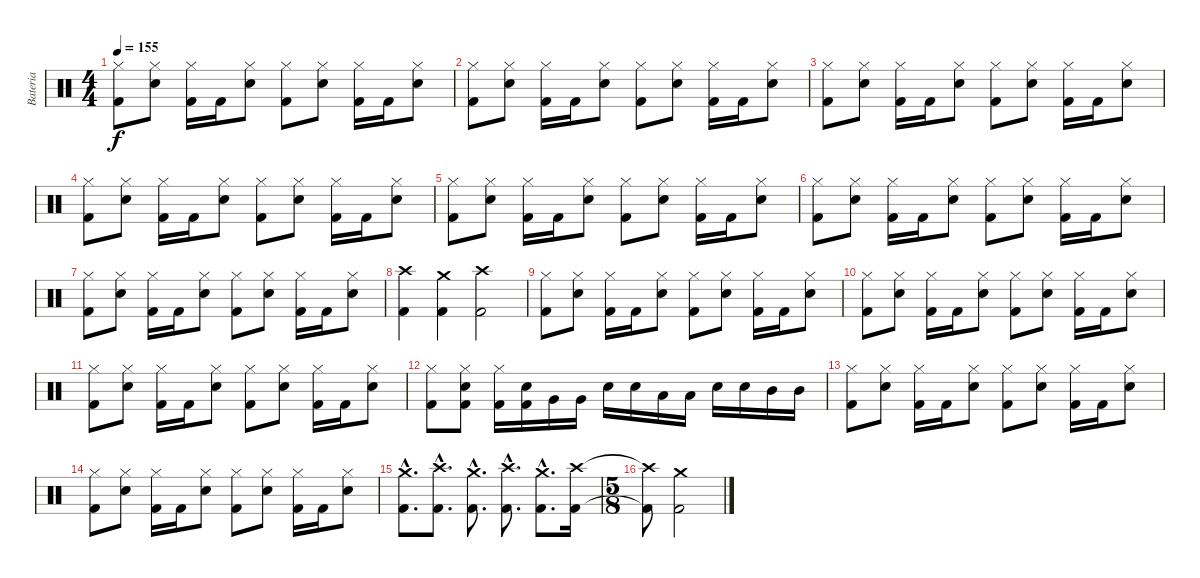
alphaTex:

\track ("Bateria" "Bateria") {instrument percussion}
\staff {score}
\articulation defaults
\ts (4 4)
\tempo 155
\clef neutral
\ks c
("Kick (hit) 2" "Hi-Hat (closed)").8{dy f} ("Electric Snare (hit)" "Hi-Hat (closed)").8 ("Kick (hit) 2" "Hi-Hat (closed)").16 "Kick (hit) 2".16 ("Electric Snare (hit)" "Hi-Hat (closed)").8 ("Kick (hit) 2" "Hi-Hat (closed)").8 ("Electric Snare (hit)" "Hi-Hat (closed)").8 ("Kick (hit) 2" "Hi-Hat (closed)").16 "Kick (hit) 2".16 ("Electric Snare (hit)" "Hi-Hat (closed)").8 |
("Kick (hit) 2" "Hi-Hat (closed)").8 ("Electric Snare (hit)" "Hi-Hat (closed)").8 ("Kick (hit) 2" "Hi-Hat (closed)").16 "Kick (hit) 2".16 ("Electric Snare (hit)" "Hi-Hat (closed)").8 ("Kick (hit) 2" "Hi-Hat (closed)").8 ("Electric Snare (hit)" "Hi-Hat (closed)").8 ("Kick (hit) 2" "Hi-Hat (closed)").16 "Kick (hit) 2".16 ("Electric Snare (hit)" "Hi-Hat (closed)").8 |
("Kick (hit) 2" "Hi-Hat (closed)").8 ("Electric Snare (hit)" "Hi-Hat (closed)").8 ("Kick (hit) 2" "Hi-Hat (closed)").16 "Kick (hit) 2".16 ("Electric Snare (hit)" "Hi-Hat (closed)").8 ("Kick (hit) 2" "Hi-Hat (closed)").8 ("Electric Snare (hit)" "Hi-Hat (closed)").8 ("Kick (hit) 2" "Hi-Hat (closed)").16 "Kick (hit) 2".16 ("Electric Snare (hit)" "Hi-Hat (closed)").8 |
("Kick (hit) 2" "Hi-Hat (closed)").8 ("Electric Snare (hit)" "Hi-Hat (closed)").8 ("Kick (hit) 2" "Hi-Hat (closed)").16 "Kick (hit) 2".16 ("Electric Snare (hit)" "Hi-Hat (closed)").8 ("Kick (hit) 2" "Hi-Hat (closed)").8 ("Electric Snare (hit)" "Hi-Hat (closed)").8 ("Kick (hit) 2" "Hi-Hat (closed)").16 "Kick (hit) 2".16 ("Electric Snare (hit)" "Hi-Hat (closed)").8 |
("Kick (hit) 2" "Hi-Hat (closed)").8 ("Electric Snare (hit)" "Hi-Hat (closed)").8 ("Kick (hit) 2" "Hi-Hat (closed)").16 "Kick (hit) 2".16 ("Electric Snare (hit)" "Hi-Hat (closed)").8 ("Kick (hit) 2" "Hi-Hat (closed)").8 ("Electric Snare (hit)" "Hi-Hat (closed)").8 ("Kick (hit) 2" "Hi-Hat (closed)").16 "Kick (hit) 2".16 ("Electric Snare (hit)" "Hi-Hat (closed)").8 |
("Kick (hit) 2" "Hi-Hat (closed)").8 ("Electric Snare (hit)" "Hi-Hat (closed)").8 ("Kick (hit) 2" "Hi-Hat (closed)").16 "Kick (hit) 2".16 ("Electric Snare (hit)" "Hi-Hat (closed)").8 ("Kick (hit) 2" "Hi-Hat (closed)").8 ("Electric Snare (hit)" "Hi-Hat (closed)").8 ("Kick (hit) 2" "Hi-Hat (closed)").16 "Kick (hit) 2".16 ("Electric Snare (hit)" "Hi-Hat (closed)").8 |
("Kick (hit) 2" "Hi-Hat (closed)").8 ("Electric Snare (hit)" "Hi-Hat (closed)").8 ("Kick (hit) 2" "Hi-Hat (closed)").16 "Kick (hit) 2".16 ("Electric Snare (hit)" "Hi-Hat (closed)").8 ("Kick (hit) 2" "Hi-Hat (closed)").8 ("Electric Snare (hit)" "Hi-Hat (closed)").8 ("Kick (hit) 2" "Hi-Hat (closed)").16 "Kick (hit) 2".16 ("Electric Snare (hit)" "Hi-Hat (closed)").8 |
("Kick (hit) 2" "Crash high (hit)").4 ("Kick (hit) 2" "Crash medium (hit)").4 ("Kick (hit) 2" "Crash high (hit)").2 |
("Kick (hit) 2" "Hi-Hat (closed)").8 ("Electric Snare (hit)" "Hi-Hat (closed)").8 ("Kick (hit) 2" "Hi-Hat (closed)").16 "Kick (hit) 2".16 ("Electric Snare (hit)" "Hi-Hat (closed)").8 ("Kick (hit) 2" "Hi-Hat (closed)").8 ("Electric Snare (hit)" "Hi-Hat (closed)").8 ("Kick (hit) 2" "Hi-Hat (closed)").16 "Kick (hit) 2".16 ("Electric Snare (hit)" "Hi-Hat (closed)").8 |
("Kick (hit) 2" "Hi-Hat (closed)").8 ("Electric Snare (hit)" "Hi-Hat (closed)").8 ("Kick (hit) 2" "Hi-Hat (closed)").16 "Kick (hit) 2".16 ("Electric Snare (hit)" "Hi-Hat (closed)").8 ("Kick (hit) 2" "Hi-Hat (closed)").8 ("Electric Snare (hit)" "Hi-Hat (closed)").8 ("Kick (hit) 2" "Hi-Hat (closed)").16 "Kick (hit) 2".16 ("Electric Snare (hit)" "Hi-Hat (closed)").8 |
("Kick (hit) 2" "Hi-Hat (closed)").8 ("Electric Snare (hit)" "Hi-Hat (closed)").8 ("Kick (hit) 2" "Hi-Hat (closed)").16 "Kick (hit) 2".16 ("Electric Snare (hit)" "Hi-Hat (closed)").8 ("Kick (hit) 2" "Hi-Hat (closed)").8 ("Electric Snare (hit)" "Hi-Hat (closed)").8 ("Kick (hit) 2" "Hi-Hat (closed)").16 "Kick (hit) 2".16 ("Electric Snare (hit)" "Hi-Hat (closed)").8 |
("Kick (hit) 2" "Hi-Hat (closed)").8 ("Kick (hit) 2" "Hi-Hat (closed)" "Electric Snare (hit)").8 ("Kick (hit) 2" "Hi-Hat (closed)").16 ("Kick (hit) 2" "Electric Snare (hit)").16 "Very Low Tom (hit)".16 "Very Low Tom (hit)".16 "Electric Snare (hit)".16 "Electric Snare (hit)".16 "Low Tom (hit)".16 "Low Tom (hit)".16 "Electric Snare (hit)".16 "Electric Snare (hit)".16 "Mid Tom (hit)".16 "Mid Tom (hit)".16 |
("Kick (hit) 2" "Hi-Hat (closed)").8 ("Electric Snare (hit)" "Hi-Hat (closed)").8 ("Kick (hit) 2" "Hi-Hat (closed)").16 "Kick (hit) 2".16 ("Electric Snare (hit)" "Hi-Hat (closed)").8 ("Kick (hit) 2" "Hi-Hat (closed)").8 ("Electric Snare (hit)" "Hi-Hat (closed)").8 ("Kick (hit) 2" "Hi-Hat (closed)").16 "Kick (hit) 2".16 ("Electric Snare (hit)" "Hi-Hat (closed)").8 |
("Kick (hit) 2" "Hi-Hat (closed)").8 ("Electric Snare (hit)" "Hi-Hat (closed)").8 ("Kick (hit) 2" "Hi-Hat (closed)").16 "Kick (hit) 2".16 ("Electric Snare (hit)" "Hi-Hat (closed)").8 ("Kick (hit) 2" "Hi-Hat (closed)").8 ("Electric Snare (hit)" "Hi-Hat (closed)").8 ("Kick (hit) 2" "Hi-Hat (closed)").16 "Kick (hit) 2".16 ("Electric Snare (hit)" "Hi-Hat (closed)").8 |
("Kick (hit) 2"{hac} "Crash medium (hit)"{hac}).8{d} ("Kick (hit) 2"{hac} "Crash high (hit)"{hac}).8{d} ("Kick (hit) 2"{hac} "Crash medium (hit)"{hac}).8{d} ("Kick (hit) 2"{hac} "Crash high (hit)"{hac}).8{d} ("Kick (hit) 2"{hac} "Crash medium (hit)"{hac}).8{d} ("Kick (hit) 2" "Crash high (hit)").16 |
\ts (5 8)
("Kick (hit) 2"{t} "Crash high (hit)"{t}).8 ("Kick (hit) 2" "Crash medium (hit)").2
